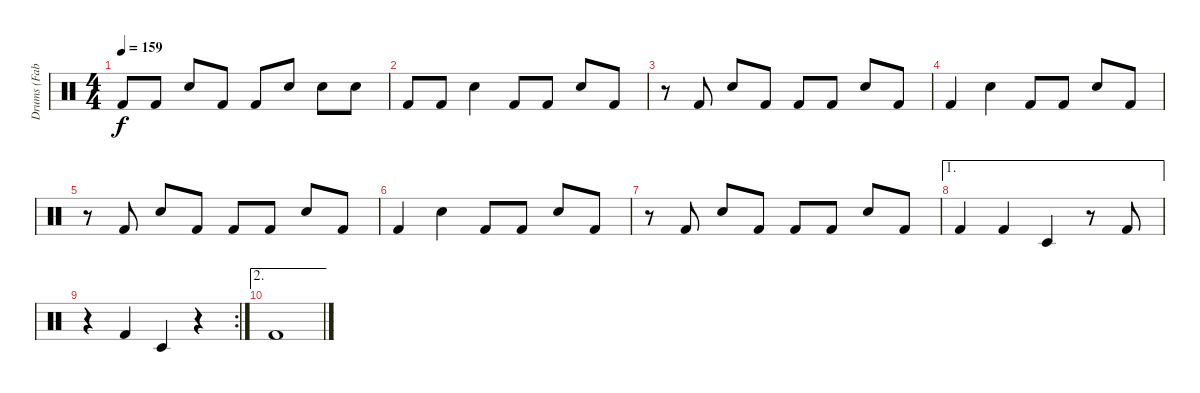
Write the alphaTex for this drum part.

\track ("Drums (Fabio)" "Drums (Fab") {instrument percussion}
\staff {score}
\articulation defaults
\ts (4 4)
\tempo 159
\clef neutral
\ks c "Kick (hit) 2".8{dy f} "Kick (hit) 2".8 "Snare (hit) 2".8 "Kick (hit) 2".8 "Kick (hit) 2".8 "Snare (hit) 2"{tr (38 16)}.8 "Snare (hit) 2"{tr (38 16)}.8 "Snare (hit) 2"{tr (38 16)}.8
|
"Kick (hit) 2".8 "Kick (hit) 2".8 "Snare (hit) 2".4 "Kick (hit) 2".8 "Kick (hit) 2".8 "Snare (hit) 2".8 "Kick (hit) 2".8 |
r.8 "Kick (hit) 2".8 "Snare (hit) 2".8 "Kick (hit) 2".8 "Kick (hit) 2".8 "Kick (hit) 2".8 "Snare (hit) 2".8 "Kick (hit) 2".8 |
"Kick (hit) 2".4 "Snare (hit) 2".4 "Kick (hit) 2".8 "Kick (hit) 2".8 "Snare (hit) 2".8 "Kick (hit) 2".8 |
r.8 "Kick (hit) 2".8 "Snare (hit) 2".8 "Kick (hit) 2".8 "Kick (hit) 2".8 "Kick (hit) 2".8 "Snare (hit) 2".8 "Kick (hit) 2".8 |
"Kick (hit) 2".4 "Snare (hit) 2".4 "Kick (hit) 2".8 "Kick (hit) 2".8 "Snare (hit) 2".8 "Kick (hit) 2".8 |
r.8 "Kick (hit) 2".8 "Snare (hit) 2".8 "Kick (hit) 2".8 "Kick (hit) 2".8 "Kick (hit) 2".8 "Snare (hit) 2".8 "Kick (hit) 2".8 |
\ae 1 "Kick (hit) 2".4 "Kick (hit) 2".4 "Timbale low (hit)".4
r.8 "Kick (hit) 2".8 |
\rc 2
r.4 "Kick (hit) 2".4 "Timbale low (hit)".4 r.4 |
\ae 2 "Kick (hit) 2".1
